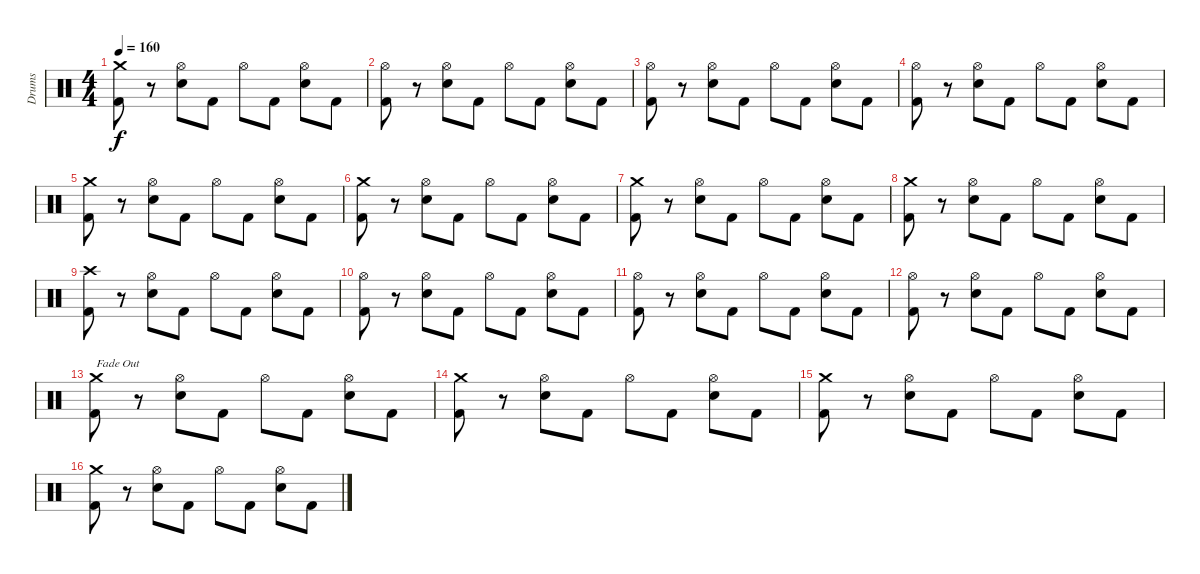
\track ("Drums" "Drums") {instrument percussion}
\staff {score}
\articulation defaults
\ts (4 4)
\tempo 160
\clef neutral
\ks c
("Kick (hit) 2" "Crash medium (hit)").8{dy f} r.8 ("Electric Snare (hit)" "Hi-Hat (open)").8 "Kick (hit) 2".8 "Hi-Hat (open)".8 "Kick (hit) 2".8 ("Electric Snare (hit)" "Hi-Hat (open)").8 "Kick (hit) 2".8 |
("Kick (hit) 2" "Hi-Hat (open)").8 r.8 ("Electric Snare (hit)" "Hi-Hat (open)").8 "Kick (hit) 2".8 "Hi-Hat (open)".8 "Kick (hit) 2".8 ("Electric Snare (hit)" "Hi-Hat (open)").8 "Kick (hit) 2".8 |
("Kick (hit) 2" "Hi-Hat (open)").8 r.8 ("Electric Snare (hit)" "Hi-Hat (open)").8 "Kick (hit) 2".8 "Hi-Hat (open)".8 "Kick (hit) 2".8 ("Electric Snare (hit)" "Hi-Hat (open)").8 "Kick (hit) 2".8 |
("Kick (hit) 2" "Hi-Hat (open)").8 r.8 ("Electric Snare (hit)" "Hi-Hat (open)").8 "Kick (hit) 2".8 "Hi-Hat (open)".8 "Kick (hit) 2".8 ("Electric Snare (hit)" "Hi-Hat (open)").8 "Kick (hit) 2".8 |
("Kick (hit) 2" "Crash medium (hit)").8 r.8 ("Electric Snare (hit)" "Hi-Hat (open)").8 "Kick (hit) 2".8 "Hi-Hat (open)".8 "Kick (hit) 2".8 ("Electric Snare (hit)" "Hi-Hat (open)").8 "Kick (hit) 2".8 |
("Kick (hit) 2" "Crash medium (hit)").8 r.8 ("Electric Snare (hit)" "Hi-Hat (open)").8 "Kick (hit) 2".8 "Hi-Hat (open)".8 "Kick (hit) 2".8 ("Electric Snare (hit)" "Hi-Hat (open)").8 "Kick (hit) 2".8 |
("Kick (hit) 2" "Crash medium (hit)").8 r.8 ("Electric Snare (hit)" "Hi-Hat (open)").8 "Kick (hit) 2".8 "Hi-Hat (open)".8 "Kick (hit) 2".8 ("Electric Snare (hit)" "Hi-Hat (open)").8 "Kick (hit) 2".8 |
("Kick (hit) 2" "Crash medium (hit)").8 r.8 ("Electric Snare (hit)" "Hi-Hat (open)").8 "Kick (hit) 2".8 "Hi-Hat (open)".8 "Kick (hit) 2".8 ("Electric Snare (hit)" "Hi-Hat (open)").8 "Kick (hit) 2".8 |
("Kick (hit) 2" "Crash high (hit)").8 r.8 ("Electric Snare (hit)" "Hi-Hat (open)").8 "Kick (hit) 2".8 "Hi-Hat (open)".8 "Kick (hit) 2".8 ("Electric Snare (hit)" "Hi-Hat (open)").8 "Kick (hit) 2".8 |
("Kick (hit) 2" "Hi-Hat (open)").8 r.8 ("Electric Snare (hit)" "Hi-Hat (open)").8 "Kick (hit) 2".8 "Hi-Hat (open)".8 "Kick (hit) 2".8 ("Electric Snare (hit)" "Hi-Hat (open)").8 "Kick (hit) 2".8 |
("Kick (hit) 2" "Hi-Hat (open)").8 r.8 ("Electric Snare (hit)" "Hi-Hat (open)").8 "Kick (hit) 2".8 "Hi-Hat (open)".8 "Kick (hit) 2".8 ("Electric Snare (hit)" "Hi-Hat (open)").8 "Kick (hit) 2".8 |
("Kick (hit) 2" "Hi-Hat (open)").8 r.8 ("Electric Snare (hit)" "Hi-Hat (open)").8 "Kick (hit) 2".8 "Hi-Hat (open)".8 "Kick (hit) 2".8 ("Electric Snare (hit)" "Hi-Hat (open)").8 "Kick (hit) 2".8 |
("Kick (hit) 2" "Crash medium (hit)").8{txt "Fade Out"} r.8 ("Electric Snare (hit)" "Hi-Hat (open)").8 "Kick (hit) 2".8 "Hi-Hat (open)".8 "Kick (hit) 2".8 ("Electric Snare (hit)" "Hi-Hat (open)").8 "Kick (hit) 2".8 |
("Kick (hit) 2" "Crash medium (hit)").8 r.8 ("Electric Snare (hit)" "Hi-Hat (open)").8 "Kick (hit) 2".8 "Hi-Hat (open)".8 "Kick (hit) 2".8 ("Electric Snare (hit)" "Hi-Hat (open)").8 "Kick (hit) 2".8 |
("Kick (hit) 2" "Crash medium (hit)").8 r.8 ("Electric Snare (hit)" "Hi-Hat (open)").8 "Kick (hit) 2".8 "Hi-Hat (open)".8 "Kick (hit) 2".8 ("Electric Snare (hit)" "Hi-Hat (open)").8 "Kick (hit) 2".8 |
("Kick (hit) 2" "Crash medium (hit)").8 r.8 ("Electric Snare (hit)" "Hi-Hat (open)").8 "Kick (hit) 2".8 "Hi-Hat (open)".8 "Kick (hit) 2".8 ("Electric Snare (hit)" "Hi-Hat (open)").8 "Kick (hit) 2".8
